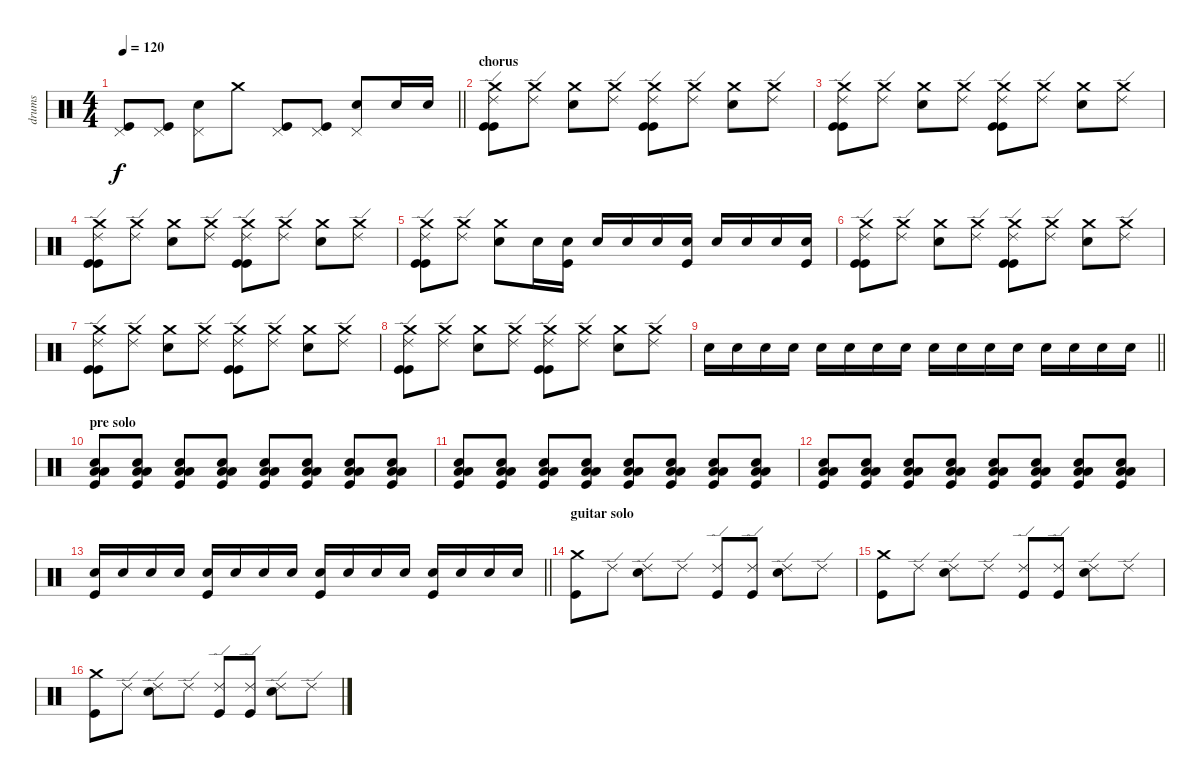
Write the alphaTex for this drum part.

\track ("drums" "drums") {instrument percussion}
\staff {score}
\articulation defaults
\ts (4 4)
\tempo 120
\clef neutral
\barLineRight lightlight
\ks c
("Pedal Hi-Hat (hit)" "Kick (hit)").8{dy f} ("Pedal Hi-Hat (hit)" "Kick (hit)").8 ("Pedal Hi-Hat (hit)" "Electric Snare (hit)").8 "Crash medium (hit)".8 ("Pedal Hi-Hat (hit)" "Kick (hit)").8 ("Pedal Hi-Hat (hit)" "Kick (hit)").8 ("Pedal Hi-Hat (hit)" "Electric Snare (hit)").8 "Electric Snare (hit)".16 "Electric Snare (hit)".16 |
\section ("" "chorus")
("Crash medium (hit)" "Ride (edge) 2" "Kick (hit)" "Kick (hit)").8 ("Crash medium (hit)" "Ride (edge) 2").8 ("Crash medium (hit)" "Electric Snare (hit)").8 ("Crash medium (hit)" "Ride (edge) 2").8 ("Crash medium (hit)" "Ride (edge) 2" "Kick (hit)" "Kick (hit)").8 ("Crash medium (hit)" "Ride (edge) 2").8 ("Crash medium (hit)" "Electric Snare (hit)").8 ("Crash medium (hit)" "Ride (edge) 2").8 |
("Crash medium (hit)" "Ride (edge) 2" "Kick (hit)" "Kick (hit)").8 ("Crash medium (hit)" "Ride (edge) 2").8 ("Crash medium (hit)" "Electric Snare (hit)").8 ("Crash medium (hit)" "Ride (edge) 2").8 ("Crash medium (hit)" "Ride (edge) 2" "Kick (hit)" "Kick (hit)").8 ("Crash medium (hit)" "Ride (edge) 2").8 ("Crash medium (hit)" "Electric Snare (hit)").8 ("Crash medium (hit)" "Ride (edge) 2").8 |
("Crash medium (hit)" "Ride (edge) 2" "Kick (hit)" "Kick (hit)").8 ("Crash medium (hit)" "Ride (edge) 2").8 ("Crash medium (hit)" "Electric Snare (hit)").8 ("Crash medium (hit)" "Ride (edge) 2").8 ("Crash medium (hit)" "Ride (edge) 2" "Kick (hit)" "Kick (hit)").8 ("Crash medium (hit)" "Ride (edge) 2").8 ("Crash medium (hit)" "Electric Snare (hit)").8 ("Crash medium (hit)" "Ride (edge) 2").8 |
("Crash medium (hit)" "Ride (edge) 2" "Kick (hit)" "Kick (hit)").8 ("Crash medium (hit)" "Ride (edge) 2").8 ("Crash medium (hit)" "Electric Snare (hit)").8 "Electric Snare (hit)".16 ("Electric Snare (hit)" "Kick (hit)").16 "Electric Snare (hit)".16 "Electric Snare (hit)".16 "Electric Snare (hit)".16 ("Electric Snare (hit)" "Kick (hit)").16 "Electric Snare (hit)".16 "Electric Snare (hit)".16 "Electric Snare (hit)".16 ("Electric Snare (hit)" "Kick (hit)").16 |
("Crash medium (hit)" "Ride (edge) 2" "Kick (hit)" "Kick (hit)").8 ("Crash medium (hit)" "Ride (edge) 2").8 ("Crash medium (hit)" "Electric Snare (hit)").8 ("Crash medium (hit)" "Ride (edge) 2").8 ("Crash medium (hit)" "Ride (edge) 2" "Kick (hit)" "Kick (hit)").8 ("Crash medium (hit)" "Ride (edge) 2").8 ("Crash medium (hit)" "Electric Snare (hit)").8 ("Crash medium (hit)" "Ride (edge) 2").8 |
("Crash medium (hit)" "Ride (edge) 2" "Kick (hit)" "Kick (hit)").8 ("Crash medium (hit)" "Ride (edge) 2").8 ("Crash medium (hit)" "Electric Snare (hit)").8 ("Crash medium (hit)" "Ride (edge) 2").8 ("Crash medium (hit)" "Ride (edge) 2" "Kick (hit)" "Kick (hit)").8 ("Crash medium (hit)" "Ride (edge) 2").8 ("Crash medium (hit)" "Electric Snare (hit)").8 ("Crash medium (hit)" "Ride (edge) 2").8 |
("Crash medium (hit)" "Ride (edge) 2" "Kick (hit)" "Kick (hit)").8 ("Crash medium (hit)" "Ride (edge) 2").8 ("Crash medium (hit)" "Electric Snare (hit)").8 ("Crash medium (hit)" "Ride (edge) 2").8 ("Crash medium (hit)" "Ride (edge) 2" "Kick (hit)" "Kick (hit)").8 ("Crash medium (hit)" "Ride (edge) 2").8 ("Crash medium (hit)" "Electric Snare (hit)").8 ("Crash medium (hit)" "Ride (edge) 2").8 |
\barLineRight lightlight "Electric Snare (hit)".16 "Electric Snare (hit)".16 "Electric Snare (hit)".16 "Electric Snare (hit)".16 "Electric Snare (hit)".16 "Electric Snare (hit)".16 "Electric Snare (hit)".16 "Electric Snare (hit)".16 "Electric Snare (hit)".16 "Electric Snare (hit)".16 "Electric Snare (hit)".16 "Electric Snare (hit)".16 "Electric Snare (hit)".16 "Electric Snare (hit)".16 "Electric Snare (hit)".16 "Electric Snare (hit)".16
|
\section ("" "pre solo")
("Low Tom (hit)" "Low Tom (hit)" "Electric Snare (hit)" "Kick (hit)").8 ("Low Tom (hit)" "Low Tom (hit)" "Electric Snare (hit)" "Kick (hit)").8 ("Low Tom (hit)" "Low Tom (hit)" "Electric Snare (hit)" "Kick (hit)").8 ("Low Tom (hit)" "Low Tom (hit)" "Electric Snare (hit)" "Kick (hit)").8 ("Low Tom (hit)" "Low Tom (hit)" "Electric Snare (hit)" "Kick (hit)").8 ("Low Tom (hit)" "Low Tom (hit)" "Electric Snare (hit)" "Kick (hit)").8 ("Low Tom (hit)" "Low Tom (hit)" "Electric Snare (hit)" "Kick (hit)").8 ("Low Tom (hit)" "Low Tom (hit)" "Electric Snare (hit)" "Kick (hit)").8 |
("Low Tom (hit)" "Low Tom (hit)" "Electric Snare (hit)" "Kick (hit)").8 ("Low Tom (hit)" "Low Tom (hit)" "Electric Snare (hit)" "Kick (hit)").8 ("Low Tom (hit)" "Low Tom (hit)" "Electric Snare (hit)" "Kick (hit)").8 ("Low Tom (hit)" "Low Tom (hit)" "Electric Snare (hit)" "Kick (hit)").8 ("Low Tom (hit)" "Low Tom (hit)" "Electric Snare (hit)" "Kick (hit)").8 ("Low Tom (hit)" "Low Tom (hit)" "Electric Snare (hit)" "Kick (hit)").8 ("Low Tom (hit)" "Low Tom (hit)" "Electric Snare (hit)" "Kick (hit)").8 ("Low Tom (hit)" "Low Tom (hit)" "Electric Snare (hit)" "Kick (hit)").8 |
("Low Tom (hit)" "Low Tom (hit)" "Electric Snare (hit)" "Kick (hit)").8 ("Low Tom (hit)" "Low Tom (hit)" "Electric Snare (hit)" "Kick (hit)").8 ("Low Tom (hit)" "Low Tom (hit)" "Electric Snare (hit)" "Kick (hit)").8 ("Low Tom (hit)" "Low Tom (hit)" "Electric Snare (hit)" "Kick (hit)").8 ("Low Tom (hit)" "Low Tom (hit)" "Electric Snare (hit)" "Kick (hit)").8 ("Low Tom (hit)" "Low Tom (hit)" "Electric Snare (hit)" "Kick (hit)").8 ("Low Tom (hit)" "Low Tom (hit)" "Electric Snare (hit)" "Kick (hit)").8 ("Low Tom (hit)" "Low Tom (hit)" "Electric Snare (hit)" "Kick (hit)").8 |
\barLineRight lightlight
("Electric Snare (hit)" "Kick (hit)").16 "Electric Snare (hit)".16 "Electric Snare (hit)".16 "Electric Snare (hit)".16 ("Electric Snare (hit)" "Kick (hit)").16 "Electric Snare (hit)".16 "Electric Snare (hit)".16 "Electric Snare (hit)".16 ("Electric Snare (hit)" "Kick (hit)").16 "Electric Snare (hit)".16 "Electric Snare (hit)".16 "Electric Snare (hit)".16 ("Electric Snare (hit)" "Kick (hit)").16 "Electric Snare (hit)".16 "Electric Snare (hit)".16 "Electric Snare (hit)".16 |
\section ("" "guitar solo")
("Crash medium (hit)" "Kick (hit)").8 "Ride (edge) 2".8 ("Ride (edge) 2" "Electric Snare (hit)").8 "Ride (edge) 2".8 ("Ride (edge) 2" "Kick (hit)").8 ("Ride (edge) 2" "Kick (hit)").8 ("Ride (edge) 2" "Electric Snare (hit)").8 "Ride (edge) 2".8 |
("Crash medium (hit)" "Kick (hit)").8 "Ride (edge) 2".8 ("Ride (edge) 2" "Electric Snare (hit)").8 "Ride (edge) 2".8 ("Ride (edge) 2" "Kick (hit)").8 ("Ride (edge) 2" "Kick (hit)").8 ("Ride (edge) 2" "Electric Snare (hit)").8 "Ride (edge) 2".8 |
("Crash medium (hit)" "Kick (hit)").8 "Ride (edge) 2".8 ("Ride (edge) 2" "Electric Snare (hit)").8 "Ride (edge) 2".8 ("Ride (edge) 2" "Kick (hit)").8 ("Ride (edge) 2" "Kick (hit)").8 ("Ride (edge) 2" "Electric Snare (hit)").8 "Ride (edge) 2".8
